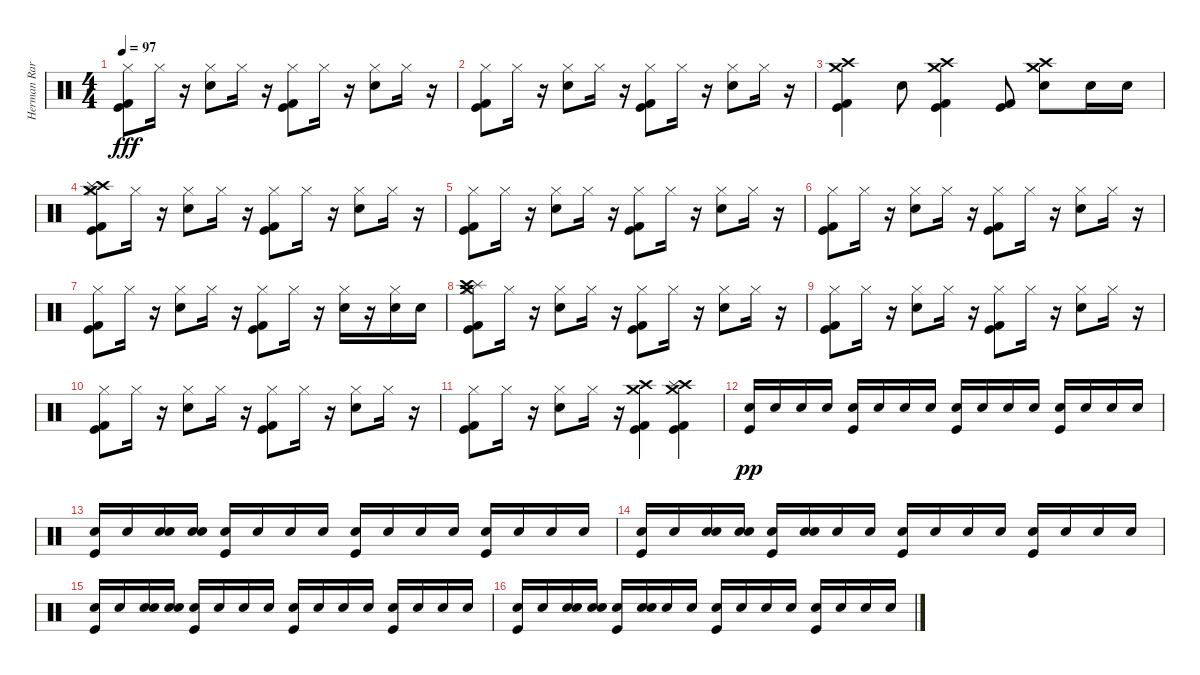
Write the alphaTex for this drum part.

\track ("Herman Rarebell - Drums and Percussion" "Herman Rar") {instrument percussion}
\staff {score}
\articulation defaults
\ts (4 4)
\tempo 97
\clef neutral
\ks c
("Hi-Hat (closed)" "Kick (hit)" "Kick (hit) 2").8{dy fff} "Hi-Hat (closed)".16 r.16 ("Snare (hit) 2" "Hi-Hat (closed)").8 "Hi-Hat (closed)".16 r.16 ("Kick (hit) 2" "Kick (hit)" "Hi-Hat (closed)").8 "Hi-Hat (closed)".16 r.16 ("Snare (hit) 2" "Hi-Hat (closed)").8 "Hi-Hat (closed)".16 r.16 |
("Hi-Hat (closed)" "Kick (hit)" "Kick (hit) 2").8 "Hi-Hat (closed)".16 r.16 ("Snare (hit) 2" "Hi-Hat (closed)").8 "Hi-Hat (closed)".16 r.16 ("Kick (hit) 2" "Kick (hit)" "Hi-Hat (closed)").8 "Hi-Hat (closed)".16 r.16 ("Snare (hit) 2" "Hi-Hat (closed)").8 "Hi-Hat (closed)".16 r.16 |
("Kick (hit) 2" "Kick (hit)" "Crash high (hit)" "Crash medium (hit)").4 "Snare (hit) 2".8 ("Crash medium (hit)" "Crash high (hit)" "Kick (hit)" "Kick (hit) 2").4 ("Kick (hit)" "Kick (hit) 2").8 ("Crash medium (hit)" "Crash high (hit)" "Snare (hit) 2").8 "Snare (hit) 2".16 "Snare (hit) 2".16 |
("Hi-Hat (closed)" "Crash high (hit)" "Splash (hit)" "Crash medium (hit)" "Kick (hit)" "Kick (hit) 2").8 "Hi-Hat (closed)".16 r.16 ("Snare (hit) 2" "Hi-Hat (closed)").8 "Hi-Hat (closed)".16 r.16 ("Kick (hit) 2" "Kick (hit)" "Hi-Hat (closed)").8 "Hi-Hat (closed)".16 r.16 ("Snare (hit) 2" "Hi-Hat (closed)").8 "Hi-Hat (closed)".16 r.16 |
("Hi-Hat (closed)" "Kick (hit)" "Kick (hit) 2").8 "Hi-Hat (closed)".16 r.16 ("Snare (hit) 2" "Hi-Hat (closed)").8 "Hi-Hat (closed)".16 r.16 ("Kick (hit) 2" "Kick (hit)" "Hi-Hat (closed)").8 "Hi-Hat (closed)".16 r.16 ("Snare (hit) 2" "Hi-Hat (closed)").8 "Hi-Hat (closed)".16 r.16 |
("Hi-Hat (closed)" "Kick (hit)" "Kick (hit) 2").8 "Hi-Hat (closed)".16 r.16 ("Snare (hit) 2" "Hi-Hat (closed)").8 "Hi-Hat (closed)".16 r.16 ("Kick (hit) 2" "Kick (hit)" "Hi-Hat (closed)").8 "Hi-Hat (closed)".16 r.16 ("Snare (hit) 2" "Hi-Hat (closed)").8 "Hi-Hat (closed)".16 r.16 |
("Hi-Hat (closed)" "Kick (hit)" "Kick (hit) 2").8 "Hi-Hat (closed)".16 r.16 ("Snare (hit) 2" "Hi-Hat (closed)").8 "Hi-Hat (closed)".16 r.16 ("Kick (hit) 2" "Kick (hit)" "Hi-Hat (closed)").8 "Hi-Hat (closed)".16 r.16 ("Hi-Hat (closed)" "Snare (hit) 2").16 r.16 ("Hi-Hat (closed)" "Snare (hit) 2").16 "Snare (hit) 2".16 |
("Kick (hit) 2" "Kick (hit)" "Crash medium (hit)" "Splash (hit)" "Crash high (hit)" "Hi-Hat (closed)").8 "Hi-Hat (closed)".16 r.16 ("Snare (hit) 2" "Hi-Hat (closed)").8 "Hi-Hat (closed)".16 r.16 ("Kick (hit) 2" "Kick (hit)" "Hi-Hat (closed)").8 "Hi-Hat (closed)".16 r.16 ("Snare (hit) 2" "Hi-Hat (closed)").8 "Hi-Hat (closed)".16 r.16 |
("Hi-Hat (closed)" "Kick (hit)" "Kick (hit) 2").8 "Hi-Hat (closed)".16 r.16 ("Snare (hit) 2" "Hi-Hat (closed)").8 "Hi-Hat (closed)".16 r.16 ("Kick (hit) 2" "Kick (hit)" "Hi-Hat (closed)").8 "Hi-Hat (closed)".16 r.16 ("Snare (hit) 2" "Hi-Hat (closed)").8 "Hi-Hat (closed)".16 r.16 |
("Hi-Hat (closed)" "Kick (hit)" "Kick (hit) 2").8 "Hi-Hat (closed)".16 r.16 ("Snare (hit) 2" "Hi-Hat (closed)").8 "Hi-Hat (closed)".16 r.16 ("Kick (hit) 2" "Kick (hit)" "Hi-Hat (closed)").8 "Hi-Hat (closed)".16 r.16 ("Snare (hit) 2" "Hi-Hat (closed)").8 "Hi-Hat (closed)".16 r.16 |
("Hi-Hat (closed)" "Kick (hit)" "Kick (hit) 2").8 "Hi-Hat (closed)".16 r.16 ("Hi-Hat (closed)" "Snare (hit) 2").8 "Hi-Hat (closed)".16 r.16 ("Kick (hit) 2" "Kick (hit)" "Crash high (hit)" "Crash medium (hit)").4 ("Kick (hit) 2" "Kick (hit)" "Crash high (hit)" "Crash medium (hit)" "Splash (hit)").4 |
("Kick (hit)" "Snare (hit) 2").16{dy pp} "Snare (hit) 2".16 "Snare (hit) 2".16 "Snare (hit) 2".16 ("Kick (hit)" "Snare (hit) 2").16 "Snare (hit) 2".16 "Snare (hit) 2".16 "Snare (hit) 2".16 ("Kick (hit)" "Snare (hit) 2").16 "Snare (hit) 2".16 "Snare (hit) 2".16 "Snare (hit) 2".16 ("Kick (hit)" "Snare (hit) 2").16 "Snare (hit) 2".16 "Snare (hit) 2".16 "Snare (hit) 2".16 |
("Kick (hit)" "Snare (hit) 2").16 "Snare (hit) 2".16 ("Electric Snare (hit)" "Snare (hit) 2").16 ("Electric Snare (hit)" "Snare (hit) 2").16 ("Kick (hit)" "Snare (hit) 2").16 "Snare (hit) 2".16 "Snare (hit) 2".16 "Snare (hit) 2".16 ("Kick (hit)" "Snare (hit) 2").16 "Snare (hit) 2".16 "Snare (hit) 2".16 "Snare (hit) 2".16 ("Kick (hit)" "Snare (hit) 2").16 "Snare (hit) 2".16 "Snare (hit) 2".16 "Snare (hit) 2".16 |
("Kick (hit)" "Snare (hit) 2").16 "Snare (hit) 2".16 ("Electric Snare (hit)" "Snare (hit) 2").16 ("Electric Snare (hit)" "Snare (hit) 2").16 ("Kick (hit)" "Snare (hit) 2").16 ("Electric Snare (hit)" "Snare (hit) 2").16 "Snare (hit) 2".16 "Snare (hit) 2".16 ("Kick (hit)" "Snare (hit) 2").16 "Snare (hit) 2".16 "Snare (hit) 2".16 "Snare (hit) 2".16 ("Kick (hit)" "Snare (hit) 2").16 "Snare (hit) 2".16 "Snare (hit) 2".16 "Snare (hit) 2".16 |
("Kick (hit)" "Snare (hit) 2").16 "Snare (hit) 2".16 ("Electric Snare (hit)" "Snare (hit) 2").16 ("Electric Snare (hit)" "Snare (hit) 2").16 ("Kick (hit)" "Snare (hit) 2").16 "Snare (hit) 2".16 "Snare (hit) 2".16 "Snare (hit) 2".16 ("Kick (hit)" "Snare (hit) 2").16 "Snare (hit) 2".16 "Snare (hit) 2".16 "Snare (hit) 2".16 ("Kick (hit)" "Snare (hit) 2").16 "Snare (hit) 2".16 "Snare (hit) 2".16 "Snare (hit) 2".16 |
("Kick (hit)" "Snare (hit) 2").16 "Snare (hit) 2".16 ("Electric Snare (hit)" "Snare (hit) 2").16 ("Electric Snare (hit)" "Snare (hit) 2").16 ("Kick (hit)" "Snare (hit) 2").16 ("Electric Snare (hit)" "Snare (hit) 2").16 "Snare (hit) 2".16 "Snare (hit) 2".16 ("Kick (hit)" "Snare (hit) 2").16 "Snare (hit) 2".16 "Snare (hit) 2".16 "Snare (hit) 2".16 ("Kick (hit)" "Snare (hit) 2").16 "Snare (hit) 2".16 "Snare (hit) 2".16 "Snare (hit) 2".16
